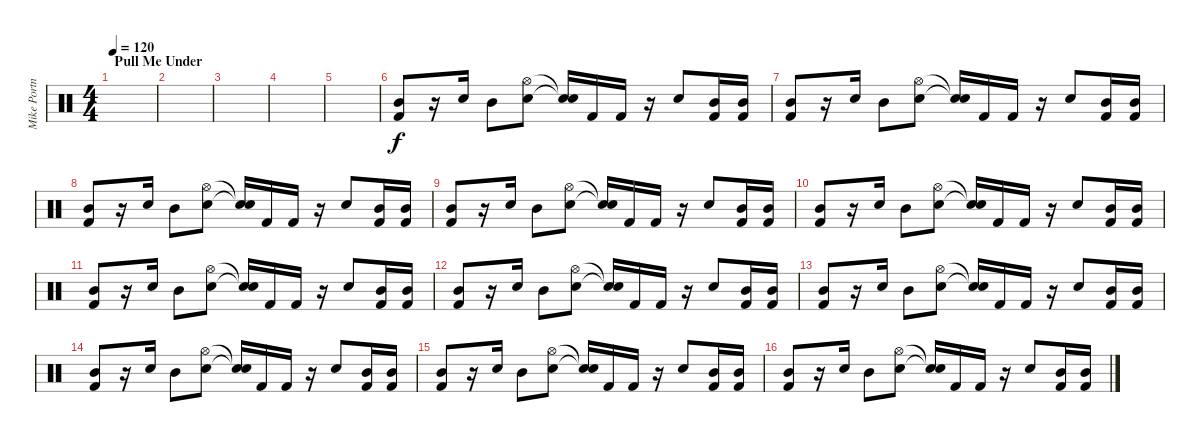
\track ("Mike Portnoy" "Mike Portn") {instrument percussion}
\staff {score}
\articulation defaults
\ts (4 4)
\section ("" "Pull Me Under")
\tempo 120
\tempo 105
\tempo 120
\clef neutral
\ks c
|
|
|
|
|
("Mid Tom (hit)" "Kick (hit) 2").8{volume 7} r.16 "Snare (hit) 2".16 "Mid Tom (hit)".8 ("Hi-Hat (open)" "Electric Snare (hit)").8 ("Snare (hit)"{t} "Snare (hit)"{t}).16 "Kick (hit) 2".16{volume 8} "Kick (hit) 2".16 r.16 "Snare (hit) 2".8 ("Mid Tom (hit)" "Kick (hit) 2").16 ("Mid Tom (hit)" "Kick (hit) 2").16 |
("Mid Tom (hit)" "Kick (hit) 2").8{volume 10} r.16 "Snare (hit) 2".16 "Mid Tom (hit)".8 ("Hi-Hat (open)" "Electric Snare (hit)").8 ("Snare (hit)"{t} "Snare (hit)"{t}).16 "Kick (hit) 2".16{volume 12} "Kick (hit) 2".16 r.16 "Snare (hit) 2".8 ("Mid Tom (hit)" "Kick (hit) 2").16 ("Mid Tom (hit)" "Kick (hit) 2").16 |
("Mid Tom (hit)" "Kick (hit) 2").8{volume 14} r.16 "Snare (hit) 2".16 "Mid Tom (hit)".8 ("Hi-Hat (open)" "Electric Snare (hit)").8 ("Snare (hit)"{t} "Snare (hit)"{t}).16 "Kick (hit) 2".16{volume 16} "Kick (hit) 2".16 r.16 "Snare (hit) 2".8 ("Mid Tom (hit)" "Kick (hit) 2").16 ("Mid Tom (hit)" "Kick (hit) 2").16 |
("Mid Tom (hit)" "Kick (hit) 2").8 r.16 "Snare (hit) 2".16 "Mid Tom (hit)".8 ("Hi-Hat (open)" "Electric Snare (hit)").8 ("Snare (hit)"{t} "Snare (hit)"{t}).16 "Kick (hit) 2".16 "Kick (hit) 2".16 r.16 "Snare (hit) 2".8 ("Mid Tom (hit)" "Kick (hit) 2").16 ("Mid Tom (hit)" "Kick (hit) 2").16 |
("Mid Tom (hit)" "Kick (hit) 2").8 r.16 "Snare (hit) 2".16 "Mid Tom (hit)".8 ("Hi-Hat (open)" "Electric Snare (hit)").8 ("Snare (hit)"{t} "Snare (hit)"{t}).16 "Kick (hit) 2".16 "Kick (hit) 2".16 r.16 "Snare (hit) 2".8 ("Mid Tom (hit)" "Kick (hit) 2").16 ("Mid Tom (hit)" "Kick (hit) 2").16 |
("Mid Tom (hit)" "Kick (hit) 2").8 r.16 "Snare (hit) 2".16 "Mid Tom (hit)".8 ("Hi-Hat (open)" "Electric Snare (hit)").8 ("Snare (hit)"{t} "Snare (hit)"{t}).16 "Kick (hit) 2".16 "Kick (hit) 2".16 r.16 "Snare (hit) 2".8 ("Mid Tom (hit)" "Kick (hit) 2").16 ("Mid Tom (hit)" "Kick (hit) 2").16 |
("Mid Tom (hit)" "Kick (hit) 2").8 r.16 "Snare (hit) 2".16 "Mid Tom (hit)".8 ("Hi-Hat (open)" "Electric Snare (hit)").8 ("Snare (hit)"{t} "Snare (hit)"{t}).16 "Kick (hit) 2".16 "Kick (hit) 2".16 r.16 "Snare (hit) 2".8 ("Mid Tom (hit)" "Kick (hit) 2").16 ("Mid Tom (hit)" "Kick (hit) 2").16 |
("Mid Tom (hit)" "Kick (hit) 2").8 r.16 "Snare (hit) 2".16 "Mid Tom (hit)".8 ("Hi-Hat (open)" "Electric Snare (hit)").8 ("Snare (hit)"{t} "Snare (hit)"{t}).16 "Kick (hit) 2".16 "Kick (hit) 2".16 r.16 "Snare (hit) 2".8 ("Mid Tom (hit)" "Kick (hit) 2").16 ("Mid Tom (hit)" "Kick (hit) 2").16 |
("Mid Tom (hit)" "Kick (hit) 2").8 r.16 "Snare (hit) 2".16 "Mid Tom (hit)".8 ("Hi-Hat (open)" "Electric Snare (hit)").8 ("Snare (hit)"{t} "Snare (hit)"{t}).16 "Kick (hit) 2".16 "Kick (hit) 2".16 r.16 "Snare (hit) 2".8 ("Mid Tom (hit)" "Kick (hit) 2").16 ("Mid Tom (hit)" "Kick (hit) 2").16 |
("Mid Tom (hit)" "Kick (hit) 2").8 r.16 "Snare (hit) 2".16 "Mid Tom (hit)".8 ("Hi-Hat (open)" "Electric Snare (hit)").8 ("Snare (hit)"{t} "Snare (hit)"{t}).16 "Kick (hit) 2".16 "Kick (hit) 2".16 r.16 "Snare (hit) 2".8 ("Mid Tom (hit)" "Kick (hit) 2").16 ("Mid Tom (hit)" "Kick (hit) 2").16 |
("Mid Tom (hit)" "Kick (hit) 2").8 r.16 "Snare (hit) 2".16 "Mid Tom (hit)".8 ("Hi-Hat (open)" "Electric Snare (hit)").8 ("Snare (hit)"{t} "Snare (hit)"{t}).16 "Kick (hit) 2".16 "Kick (hit) 2".16 r.16 "Snare (hit) 2".8 ("Mid Tom (hit)" "Kick (hit) 2").16 ("Mid Tom (hit)" "Kick (hit) 2").16
